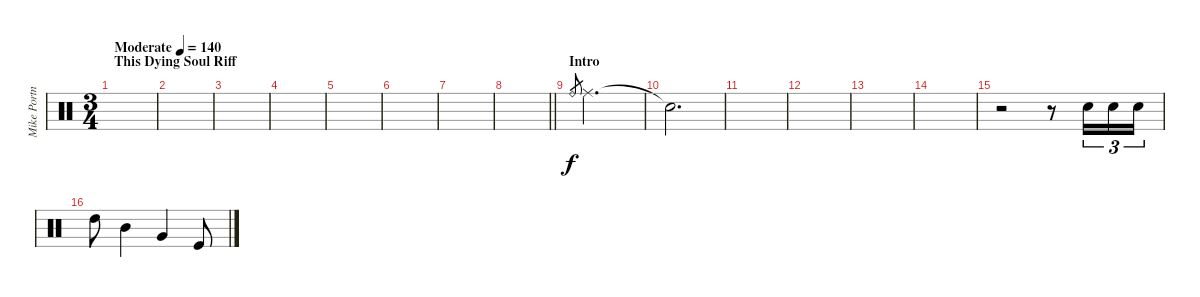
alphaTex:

\track ("Mike Portnoy" "Mike Portn") {instrument percussion}
\staff {score}
\articulation defaults
\ts (3 4)
\section ("" "This Dying Soul Riff")
\tempo (140 "Moderate")
\clef neutral
\ks c
|
|
|
|
|
|
|
\barLineRight lightlight
|
\section ("" "Intro")
"Ride (bell)".8{gr} "Ride (middle)".2{d dy f} |
"Snare (hit)"{t}.2{d} |
|
|
|
|
r.2 r.8 "Electric Snare (hit)".16{tu (3 2)} "Electric Snare (hit)".16{tu (3 2)} "Electric Snare (hit)".16{tu (3 2)} |
"High Tom (hit)".8 "Mid Tom (hit)".4 "Very Low Tom (hit)".4 "Kick (hit)".8
